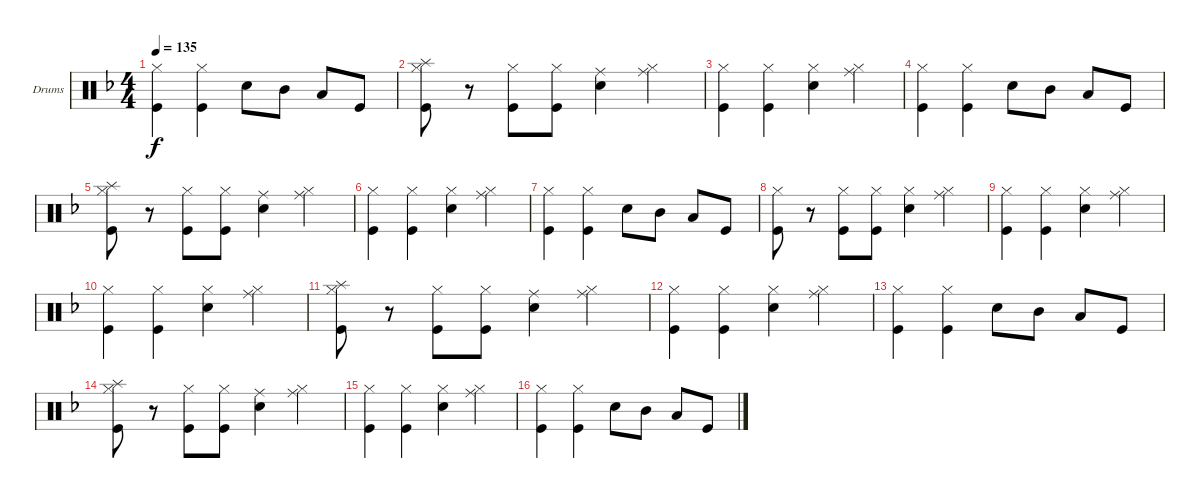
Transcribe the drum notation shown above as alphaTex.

\bracketExtendMode groupsimilarinstruments
\firstSystemTrackNameOrientation horizontal
\otherSystemsTrackNameOrientation horizontal
\track ("Drumkitover" "Drums") {instrument percussion}
\staff {score}
\articulation defaults
\ts (4 4)
\tempo 135
\clef neutral
\ks dminor
("Hi-Hat (closed)" "Kick (hit)").4{dy f} ("Hi-Hat (closed)" "Kick (hit)").4 "Snare (hit) 2".8 "Mid Tom (hit)".8 "Low Tom (hit)".8 "Kick (hit)".8 |
("Hi-Hat (closed)" "Kick (hit)" "Splash (hit)").8 r.8 ("Hi-Hat (closed)" "Kick (hit)").8 ("Hi-Hat (closed)" "Kick (hit)").8 ("Snare (hit) 2" "Ride (middle)").4 ("Hi-Hat (closed)" "Ride (middle)").4 |
("Hi-Hat (closed)" "Kick (hit)").4 ("Hi-Hat (closed)" "Kick (hit)").4 ("Snare (hit) 2" "Hi-Hat (closed)").4 ("Hi-Hat (closed)" "Ride (middle)").4 |
("Hi-Hat (closed)" "Kick (hit)").4 ("Hi-Hat (closed)" "Kick (hit)").4 "Snare (hit) 2".8 "Mid Tom (hit)".8 "Low Tom (hit)".8 "Kick (hit)".8 |
("Hi-Hat (closed)" "Kick (hit)" "Splash (hit)").8 r.8 ("Hi-Hat (closed)" "Kick (hit)").8 ("Hi-Hat (closed)" "Kick (hit)").8 ("Snare (hit) 2" "Ride (middle)").4 ("Hi-Hat (closed)" "Ride (middle)").4 |
("Hi-Hat (closed)" "Kick (hit)").4 ("Hi-Hat (closed)" "Kick (hit)").4 ("Snare (hit) 2" "Hi-Hat (closed)").4 ("Hi-Hat (closed)" "Ride (middle)").4 |
("Hi-Hat (closed)" "Kick (hit)").4 ("Hi-Hat (closed)" "Kick (hit)").4 "Snare (hit) 2".8 "Mid Tom (hit)".8 "Low Tom (hit)".8 "Kick (hit)".8 |
("Kick (hit)" "Hi-Hat (closed)").8 r.8 ("Hi-Hat (closed)" "Kick (hit)").8 ("Hi-Hat (closed)" "Kick (hit)").8 ("Snare (hit) 2" "Hi-Hat (closed)").4 ("Hi-Hat (closed)" "Ride (middle)").4 |
("Hi-Hat (closed)" "Kick (hit)").4 ("Hi-Hat (closed)" "Kick (hit)").4 ("Snare (hit) 2" "Hi-Hat (closed)").4 ("Hi-Hat (closed)" "Ride (middle)").4 |
("Hi-Hat (closed)" "Kick (hit)").4 ("Hi-Hat (closed)" "Kick (hit)").4 ("Snare (hit) 2" "Hi-Hat (closed)").4 ("Hi-Hat (closed)" "Ride (middle)").4 |
("Hi-Hat (closed)" "Kick (hit)" "Splash (hit)").8 r.8 ("Hi-Hat (closed)" "Kick (hit)").8 ("Hi-Hat (closed)" "Kick (hit)").8 ("Snare (hit) 2" "Ride (middle)").4 ("Hi-Hat (closed)" "Ride (middle)").4 |
("Hi-Hat (closed)" "Kick (hit)").4 ("Hi-Hat (closed)" "Kick (hit)").4 ("Snare (hit) 2" "Hi-Hat (closed)").4 ("Hi-Hat (closed)" "Ride (middle)").4 |
("Hi-Hat (closed)" "Kick (hit)").4 ("Hi-Hat (closed)" "Kick (hit)").4 "Snare (hit) 2".8 "Mid Tom (hit)".8 "Low Tom (hit)".8 "Kick (hit)".8 |
("Hi-Hat (closed)" "Kick (hit)" "Splash (hit)").8 r.8 ("Hi-Hat (closed)" "Kick (hit)").8 ("Hi-Hat (closed)" "Kick (hit)").8 ("Snare (hit) 2" "Ride (middle)").4 ("Hi-Hat (closed)" "Ride (middle)").4 |
("Hi-Hat (closed)" "Kick (hit)").4 ("Hi-Hat (closed)" "Kick (hit)").4 ("Snare (hit) 2" "Hi-Hat (closed)").4 ("Hi-Hat (closed)" "Ride (middle)").4 |
("Hi-Hat (closed)" "Kick (hit)").4 ("Hi-Hat (closed)" "Kick (hit)").4 "Snare (hit) 2".8 "Mid Tom (hit)".8 "Low Tom (hit)".8 "Kick (hit)".8
